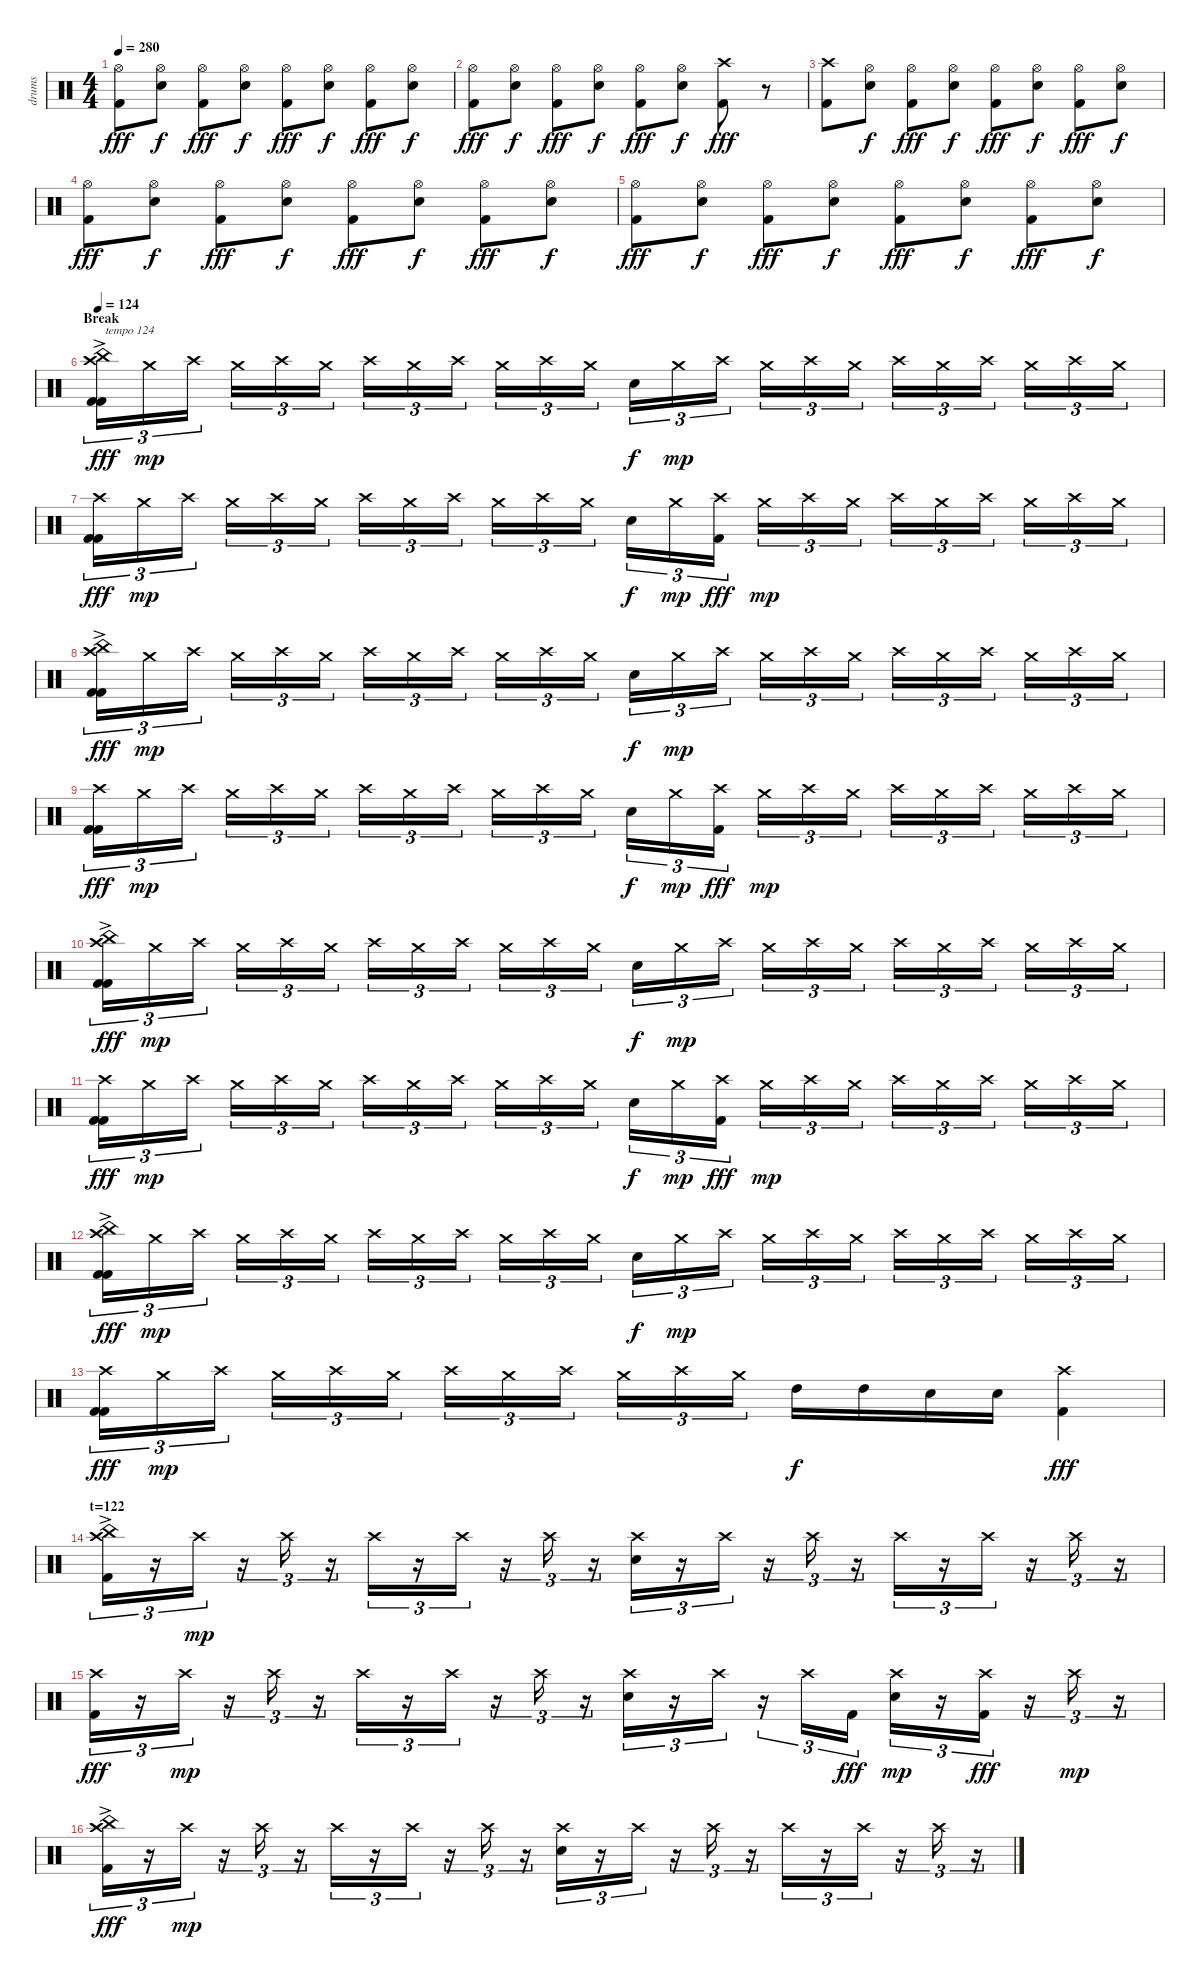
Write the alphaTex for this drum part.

\track ("drums" "drums") {instrument percussion}
\staff {score}
\articulation defaults
\ts (4 4)
\tempo 280
\clef neutral
\ks c
("Hi-Hat (open)" "Kick (hit) 2").8{dy fff} ("Hi-Hat (open)" "Snare (hit) 2").8{dy f} ("Hi-Hat (open)" "Kick (hit) 2").8{dy fff} ("Hi-Hat (open)" "Snare (hit) 2").8{dy f} ("Hi-Hat (open)" "Kick (hit) 2").8{dy fff} ("Hi-Hat (open)" "Snare (hit) 2").8{dy f} ("Hi-Hat (open)" "Kick (hit) 2").8{dy fff} ("Hi-Hat (open)" "Snare (hit) 2").8{dy f} |
("Hi-Hat (open)" "Kick (hit) 2").8{dy fff} ("Hi-Hat (open)" "Snare (hit) 2").8{dy f} ("Hi-Hat (open)" "Kick (hit) 2").8{dy fff} ("Hi-Hat (open)" "Snare (hit) 2").8{dy f} ("Hi-Hat (open)" "Kick (hit) 2").8{dy fff} ("Hi-Hat (open)" "Snare (hit) 2").8{dy f} ("Crash high (hit)" "Kick (hit) 2").8{dy fff} r.8 |
("Crash high (hit)" "Kick (hit) 2").8 ("Hi-Hat (open)" "Snare (hit) 2").8{dy f} ("Hi-Hat (open)" "Kick (hit) 2").8{dy fff} ("Hi-Hat (open)" "Snare (hit) 2").8{dy f} ("Hi-Hat (open)" "Kick (hit) 2").8{dy fff} ("Hi-Hat (open)" "Snare (hit) 2").8{dy f} ("Hi-Hat (open)" "Kick (hit) 2").8{dy fff} ("Hi-Hat (open)" "Snare (hit) 2").8{dy f} |
("Hi-Hat (open)" "Kick (hit) 2").8{dy fff} ("Hi-Hat (open)" "Snare (hit) 2").8{dy f} ("Hi-Hat (open)" "Kick (hit) 2").8{dy fff} ("Hi-Hat (open)" "Snare (hit) 2").8{dy f} ("Hi-Hat (open)" "Kick (hit) 2").8{dy fff} ("Hi-Hat (open)" "Snare (hit) 2").8{dy f} ("Hi-Hat (open)" "Kick (hit) 2").8{dy fff} ("Hi-Hat (open)" "Snare (hit) 2").8{dy f} |
("Hi-Hat (open)" "Kick (hit) 2").8{dy fff} ("Hi-Hat (open)" "Snare (hit) 2").8{dy f} ("Hi-Hat (open)" "Kick (hit) 2").8{dy fff} ("Hi-Hat (open)" "Snare (hit) 2").8{dy f} ("Hi-Hat (open)" "Kick (hit) 2").8{dy fff} ("Hi-Hat (open)" "Snare (hit) 2").8{dy f} ("Hi-Hat (open)" "Kick (hit) 2").8{dy fff} ("Hi-Hat (open)" "Snare (hit) 2").8{dy f} |
\section ("" "Break")
\tempo 124
("Crash high (hit)"{ac} "China (hit)" "Kick (hit) 2" "Kick (hit) 2").16{tu (3 2) txt "tempo 124" dy fff} "Crash medium (hit)".16{tu (3 2) dy mp} "Crash high (hit)".16{tu (3 2)} "Crash medium (hit)".16{tu (3 2)} "Crash high (hit)".16{tu (3 2)} "Crash medium (hit)".16{tu (3 2)} "Crash high (hit)".16{tu (3 2)} "Crash medium (hit)".16{tu (3 2)} "Crash high (hit)".16{tu (3 2)} "Crash medium (hit)".16{tu (3 2)} "Crash high (hit)".16{tu (3 2)} "Crash medium (hit)".16{tu (3 2)} "Snare (hit) 2".16{tu (3 2) dy f} "Crash medium (hit)".16{tu (3 2) dy mp} "Crash high (hit)".16{tu (3 2)} "Crash medium (hit)".16{tu (3 2)} "Crash high (hit)".16{tu (3 2)} "Crash medium (hit)".16{tu (3 2)} "Crash high (hit)".16{tu (3 2)} "Crash medium (hit)".16{tu (3 2)} "Crash high (hit)".16{tu (3 2)} "Crash medium (hit)".16{tu (3 2)} "Crash high (hit)".16{tu (3 2)} "Crash medium (hit)".16{tu (3 2)} |
("Crash high (hit)" "Kick (hit) 2" "Kick (hit) 2").16{tu (3 2) dy fff} "Crash medium (hit)".16{tu (3 2) dy mp} "Crash high (hit)".16{tu (3 2)} "Crash medium (hit)".16{tu (3 2)} "Crash high (hit)".16{tu (3 2)} "Crash medium (hit)".16{tu (3 2)} "Crash high (hit)".16{tu (3 2)} "Crash medium (hit)".16{tu (3 2)} "Crash high (hit)".16{tu (3 2)} "Crash medium (hit)".16{tu (3 2)} "Crash high (hit)".16{tu (3 2)} "Crash medium (hit)".16{tu (3 2)} "Snare (hit) 2".16{tu (3 2) dy f} "Crash medium (hit)".16{tu (3 2) dy mp} ("Crash high (hit)" "Kick (hit) 2").16{tu (3 2) dy fff} "Crash medium (hit)".16{tu (3 2) dy mp} "Crash high (hit)".16{tu (3 2)} "Crash medium (hit)".16{tu (3 2)} "Crash high (hit)".16{tu (3 2)} "Crash medium (hit)".16{tu (3 2)} "Crash high (hit)".16{tu (3 2)} "Crash medium (hit)".16{tu (3 2)} "Crash high (hit)".16{tu (3 2)} "Crash medium (hit)".16{tu (3 2)} |
("Crash high (hit)"{ac} "China (hit)" "Kick (hit) 2" "Kick (hit) 2").16{tu (3 2) dy fff} "Crash medium (hit)".16{tu (3 2) dy mp} "Crash high (hit)".16{tu (3 2)} "Crash medium (hit)".16{tu (3 2)} "Crash high (hit)".16{tu (3 2)} "Crash medium (hit)".16{tu (3 2)} "Crash high (hit)".16{tu (3 2)} "Crash medium (hit)".16{tu (3 2)} "Crash high (hit)".16{tu (3 2)} "Crash medium (hit)".16{tu (3 2)} "Crash high (hit)".16{tu (3 2)} "Crash medium (hit)".16{tu (3 2)} "Snare (hit) 2".16{tu (3 2) dy f} "Crash medium (hit)".16{tu (3 2) dy mp} "Crash high (hit)".16{tu (3 2)} "Crash medium (hit)".16{tu (3 2)} "Crash high (hit)".16{tu (3 2)} "Crash medium (hit)".16{tu (3 2)} "Crash high (hit)".16{tu (3 2)} "Crash medium (hit)".16{tu (3 2)} "Crash high (hit)".16{tu (3 2)} "Crash medium (hit)".16{tu (3 2)} "Crash high (hit)".16{tu (3 2)} "Crash medium (hit)".16{tu (3 2)} |
("Crash high (hit)" "Kick (hit) 2" "Kick (hit) 2").16{tu (3 2) dy fff} "Crash medium (hit)".16{tu (3 2) dy mp} "Crash high (hit)".16{tu (3 2)} "Crash medium (hit)".16{tu (3 2)} "Crash high (hit)".16{tu (3 2)} "Crash medium (hit)".16{tu (3 2)} "Crash high (hit)".16{tu (3 2)} "Crash medium (hit)".16{tu (3 2)} "Crash high (hit)".16{tu (3 2)} "Crash medium (hit)".16{tu (3 2)} "Crash high (hit)".16{tu (3 2)} "Crash medium (hit)".16{tu (3 2)} "Snare (hit) 2".16{tu (3 2) dy f} "Crash medium (hit)".16{tu (3 2) dy mp} ("Crash high (hit)" "Kick (hit) 2").16{tu (3 2) dy fff} "Crash medium (hit)".16{tu (3 2) dy mp} "Crash high (hit)".16{tu (3 2)} "Crash medium (hit)".16{tu (3 2)} "Crash high (hit)".16{tu (3 2)} "Crash medium (hit)".16{tu (3 2)} "Crash high (hit)".16{tu (3 2)} "Crash medium (hit)".16{tu (3 2)} "Crash high (hit)".16{tu (3 2)} "Crash medium (hit)".16{tu (3 2)} |
("Crash high (hit)"{ac} "China (hit)" "Kick (hit) 2" "Kick (hit) 2").16{tu (3 2) dy fff} "Crash medium (hit)".16{tu (3 2) dy mp} "Crash high (hit)".16{tu (3 2)} "Crash medium (hit)".16{tu (3 2)} "Crash high (hit)".16{tu (3 2)} "Crash medium (hit)".16{tu (3 2)} "Crash high (hit)".16{tu (3 2)} "Crash medium (hit)".16{tu (3 2)} "Crash high (hit)".16{tu (3 2)} "Crash medium (hit)".16{tu (3 2)} "Crash high (hit)".16{tu (3 2)} "Crash medium (hit)".16{tu (3 2)} "Snare (hit) 2".16{tu (3 2) dy f} "Crash medium (hit)".16{tu (3 2) dy mp} "Crash high (hit)".16{tu (3 2)} "Crash medium (hit)".16{tu (3 2)} "Crash high (hit)".16{tu (3 2)} "Crash medium (hit)".16{tu (3 2)} "Crash high (hit)".16{tu (3 2)} "Crash medium (hit)".16{tu (3 2)} "Crash high (hit)".16{tu (3 2)} "Crash medium (hit)".16{tu (3 2)} "Crash high (hit)".16{tu (3 2)} "Crash medium (hit)".16{tu (3 2)} |
("Crash high (hit)" "Kick (hit) 2" "Kick (hit) 2").16{tu (3 2) dy fff} "Crash medium (hit)".16{tu (3 2) dy mp} "Crash high (hit)".16{tu (3 2)} "Crash medium (hit)".16{tu (3 2)} "Crash high (hit)".16{tu (3 2)} "Crash medium (hit)".16{tu (3 2)} "Crash high (hit)".16{tu (3 2)} "Crash medium (hit)".16{tu (3 2)} "Crash high (hit)".16{tu (3 2)} "Crash medium (hit)".16{tu (3 2)} "Crash high (hit)".16{tu (3 2)} "Crash medium (hit)".16{tu (3 2)} "Snare (hit) 2".16{tu (3 2) dy f} "Crash medium (hit)".16{tu (3 2) dy mp} ("Crash high (hit)" "Kick (hit) 2").16{tu (3 2) dy fff} "Crash medium (hit)".16{tu (3 2) dy mp} "Crash high (hit)".16{tu (3 2)} "Crash medium (hit)".16{tu (3 2)} "Crash high (hit)".16{tu (3 2)} "Crash medium (hit)".16{tu (3 2)} "Crash high (hit)".16{tu (3 2)} "Crash medium (hit)".16{tu (3 2)} "Crash high (hit)".16{tu (3 2)} "Crash medium (hit)".16{tu (3 2)} |
("Crash high (hit)"{ac} "China (hit)" "Kick (hit) 2" "Kick (hit) 2").16{tu (3 2) dy fff} "Crash medium (hit)".16{tu (3 2) dy mp} "Crash high (hit)".16{tu (3 2)} "Crash medium (hit)".16{tu (3 2)} "Crash high (hit)".16{tu (3 2)} "Crash medium (hit)".16{tu (3 2)} "Crash high (hit)".16{tu (3 2)} "Crash medium (hit)".16{tu (3 2)} "Crash high (hit)".16{tu (3 2)} "Crash medium (hit)".16{tu (3 2)} "Crash high (hit)".16{tu (3 2)} "Crash medium (hit)".16{tu (3 2)} "Snare (hit) 2".16{tu (3 2) dy f} "Crash medium (hit)".16{tu (3 2) dy mp} "Crash high (hit)".16{tu (3 2)} "Crash medium (hit)".16{tu (3 2)} "Crash high (hit)".16{tu (3 2)} "Crash medium (hit)".16{tu (3 2)} "Crash high (hit)".16{tu (3 2)} "Crash medium (hit)".16{tu (3 2)} "Crash high (hit)".16{tu (3 2)} "Crash medium (hit)".16{tu (3 2)} "Crash high (hit)".16{tu (3 2)} "Crash medium (hit)".16{tu (3 2)} |
("Crash high (hit)" "Kick (hit) 2" "Kick (hit) 2").16{tu (3 2) dy fff} "Crash medium (hit)".16{tu (3 2) dy mp} "Crash high (hit)".16{tu (3 2)} "Crash medium (hit)".16{tu (3 2)} "Crash high (hit)".16{tu (3 2)} "Crash medium (hit)".16{tu (3 2)} "Crash high (hit)".16{tu (3 2)} "Crash medium (hit)".16{tu (3 2)} "Crash high (hit)".16{tu (3 2)} "Crash medium (hit)".16{tu (3 2)} "Crash high (hit)".16{tu (3 2)} "Crash medium (hit)".16{tu (3 2)} "High Tom (hit)".16{dy f} "High Tom (hit)".16 "Snare (hit) 2".16 "Snare (hit) 2".16 ("Crash high (hit)" "Kick (hit) 2").4{dy fff} |
\section ("" "t=122")
("Crash high (hit)"{ac} "China (hit)" "Kick (hit) 2").16{tu (3 2)} r.16{tu (3 2)} "Crash high (hit)".16{tu (3 2) dy mp} r.16{tu (3 2)} "Crash high (hit)".16{tu (3 2)} r.16{tu (3 2)} "Crash high (hit)".16{tu (3 2)} r.16{tu (3 2)} "Crash high (hit)".16{tu (3 2)} r.16{tu (3 2)} "Crash high (hit)".16{tu (3 2)} r.16{tu (3 2)} ("Crash high (hit)" "Snare (hit) 2").16{tu (3 2)} r.16{tu (3 2)} "Crash high (hit)".16{tu (3 2)} r.16{tu (3 2)} "Crash high (hit)".16{tu (3 2)} r.16{tu (3 2)} "Crash high (hit)".16{tu (3 2)} r.16{tu (3 2)} "Crash high (hit)".16{tu (3 2)} r.16{tu (3 2)} "Crash high (hit)".16{tu (3 2)} r.16{tu (3 2)} |
("Crash high (hit)" "Kick (hit) 2").16{tu (3 2) dy fff} r.16{tu (3 2)} "Crash high (hit)".16{tu (3 2) dy mp} r.16{tu (3 2)} "Crash high (hit)".16{tu (3 2)} r.16{tu (3 2)} "Crash high (hit)".16{tu (3 2)} r.16{tu (3 2)} "Crash high (hit)".16{tu (3 2)} r.16{tu (3 2)} "Crash high (hit)".16{tu (3 2)} r.16{tu (3 2)} ("Crash high (hit)" "Snare (hit) 2").16{tu (3 2)} r.16{tu (3 2)} "Crash high (hit)".16{tu (3 2)} r.16{tu (3 2)} "Crash high (hit)".16{tu (3 2)} "Kick (hit) 2".16{tu (3 2) dy fff} ("Crash high (hit)" "Snare (hit) 2").16{tu (3 2) dy mp} r.16{tu (3 2)} ("Crash high (hit)" "Kick (hit) 2").16{tu (3 2) dy fff} r.16{tu (3 2)} "Crash high (hit)".16{tu (3 2) dy mp} r.16{tu (3 2)} |
("Crash high (hit)"{ac} "China (hit)" "Kick (hit) 2").16{tu (3 2) dy fff} r.16{tu (3 2)} "Crash high (hit)".16{tu (3 2) dy mp} r.16{tu (3 2)} "Crash high (hit)".16{tu (3 2)} r.16{tu (3 2)} "Crash high (hit)".16{tu (3 2)} r.16{tu (3 2)} "Crash high (hit)".16{tu (3 2)} r.16{tu (3 2)} "Crash high (hit)".16{tu (3 2)} r.16{tu (3 2)} ("Crash high (hit)" "Snare (hit) 2").16{tu (3 2)} r.16{tu (3 2)} "Crash high (hit)".16{tu (3 2)} r.16{tu (3 2)} "Crash high (hit)".16{tu (3 2)} r.16{tu (3 2)} "Crash high (hit)".16{tu (3 2)} r.16{tu (3 2)} "Crash high (hit)".16{tu (3 2)} r.16{tu (3 2)} "Crash high (hit)".16{tu (3 2)} r.16{tu (3 2)}
